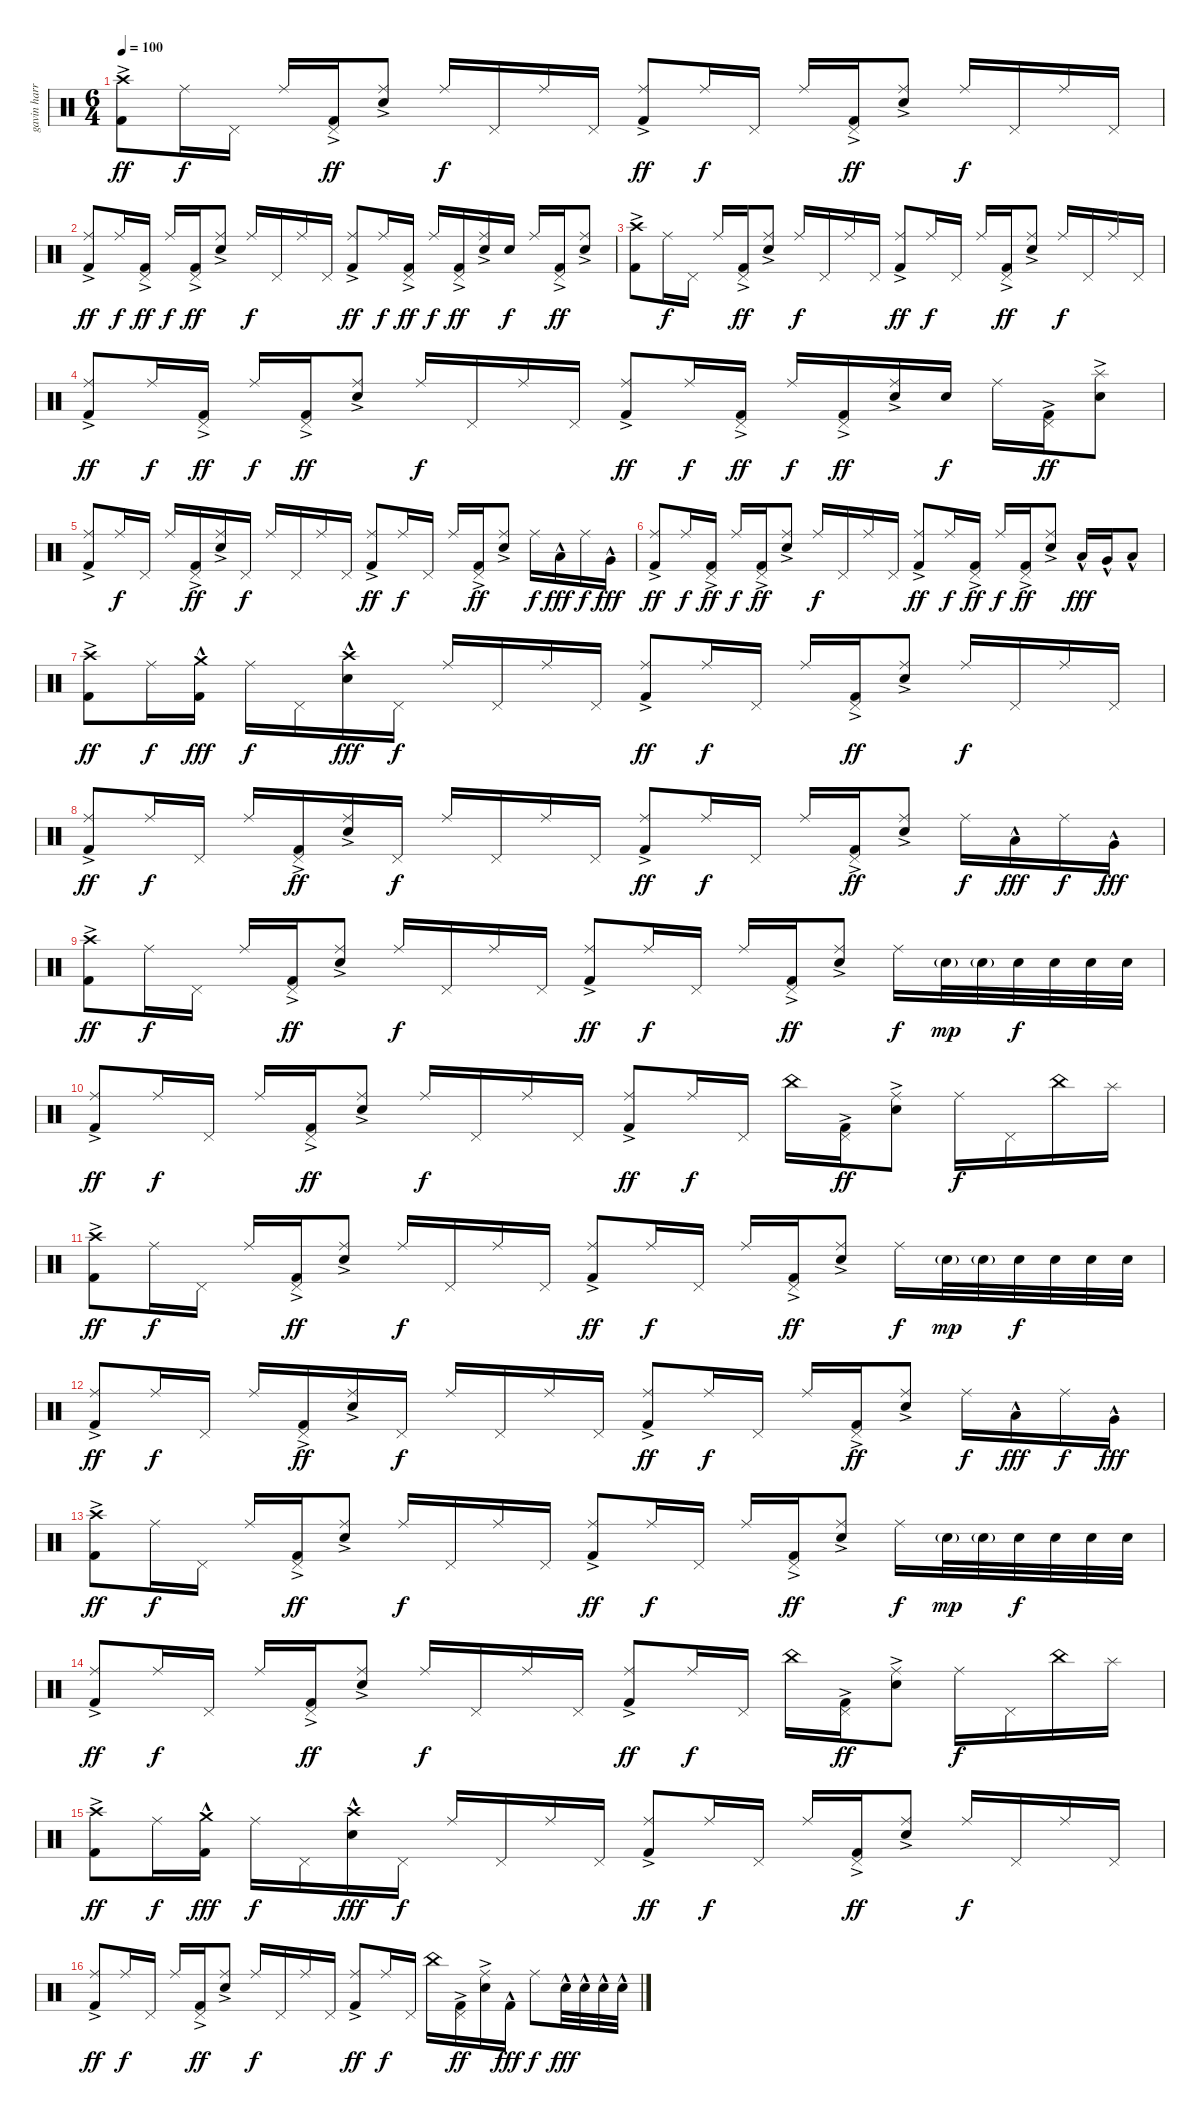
\track ("gavin harrison" "gavin harr") {instrument percussion}
\staff {score}
\articulation defaults
\ts (6 4)
\tempo 100
\clef neutral
\ks c
("Crash high (hit)" "Kick (hit) 2"{ac}).8{dy ff} "Ride (middle)".16{dy f} "Pedal Hi-Hat (hit)".16 "Ride (middle)".16 ("Pedal Hi-Hat (hit)" "Kick (hit) 2"{ac}).16{dy ff} ("Ride (middle)" "Electric Snare (hit)"{ac}).8 "Ride (middle)".16{dy f} "Pedal Hi-Hat (hit)".16 "Ride (middle)".16 "Pedal Hi-Hat (hit)".16 ("Ride (middle)" "Kick (hit) 2"{ac}).8{dy ff} "Ride (middle)".16{dy f} "Pedal Hi-Hat (hit)".16 "Ride (middle)".16 ("Pedal Hi-Hat (hit)" "Kick (hit) 2"{ac}).16{dy ff} ("Ride (middle)" "Electric Snare (hit)"{ac}).8 "Ride (middle)".16{dy f} "Pedal Hi-Hat (hit)".16 "Ride (middle)".16 "Pedal Hi-Hat (hit)".16 |
("Ride (middle)" "Kick (hit) 2"{ac}).8{dy ff} "Ride (middle)".16{dy f} ("Pedal Hi-Hat (hit)" "Kick (hit) 2"{ac}).16{dy ff} "Ride (middle)".16{dy f} ("Pedal Hi-Hat (hit)" "Kick (hit) 2"{ac}).16{dy ff} ("Ride (middle)" "Electric Snare (hit)"{ac}).8 "Ride (middle)".16{dy f} "Pedal Hi-Hat (hit)".16 "Ride (middle)".16 "Pedal Hi-Hat (hit)".16 ("Ride (middle)" "Kick (hit) 2"{ac}).8{dy ff} "Ride (middle)".16{dy f} ("Pedal Hi-Hat (hit)" "Kick (hit) 2"{ac}).16{dy ff} "Ride (middle)".16{dy f} ("Pedal Hi-Hat (hit)" "Kick (hit) 2"{ac}).16{dy ff} ("Ride (middle)" "Electric Snare (hit)"{ac}).16 "Electric Snare (hit)".16{dy f} "Ride (middle)".16 ("Pedal Hi-Hat (hit)" "Kick (hit) 2"{ac}).16{dy ff} ("Ride (middle)" "Electric Snare (hit)"{ac}).8 |
("Crash high (hit)" "Kick (hit) 2"{ac}).8 "Ride (middle)".16{dy f} "Pedal Hi-Hat (hit)".16 "Ride (middle)".16 ("Pedal Hi-Hat (hit)" "Kick (hit) 2"{ac}).16{dy ff} ("Ride (middle)" "Electric Snare (hit)"{ac}).8 "Ride (middle)".16{dy f} "Pedal Hi-Hat (hit)".16 "Ride (middle)".16 "Pedal Hi-Hat (hit)".16 ("Ride (middle)" "Kick (hit) 2"{ac}).8{dy ff} "Ride (middle)".16{dy f} "Pedal Hi-Hat (hit)".16 "Ride (middle)".16 ("Pedal Hi-Hat (hit)" "Kick (hit) 2"{ac}).16{dy ff} ("Ride (middle)" "Electric Snare (hit)"{ac}).8 "Ride (middle)".16{dy f} "Pedal Hi-Hat (hit)".16 "Ride (middle)".16 "Pedal Hi-Hat (hit)".16 |
("Ride (middle)" "Kick (hit) 2"{ac}).8{dy ff} "Ride (middle)".16{dy f} ("Pedal Hi-Hat (hit)" "Kick (hit) 2"{ac}).16{dy ff} "Ride (middle)".16{dy f} ("Pedal Hi-Hat (hit)" "Kick (hit) 2"{ac}).16{dy ff} ("Ride (middle)" "Electric Snare (hit)"{ac}).8 "Ride (middle)".16{dy f} "Pedal Hi-Hat (hit)".16 "Ride (middle)".16 "Pedal Hi-Hat (hit)".16 ("Ride (middle)" "Kick (hit) 2"{ac}).8{dy ff} "Ride (middle)".16{dy f} ("Pedal Hi-Hat (hit)" "Kick (hit) 2"{ac}).16{dy ff} "Ride (middle)".16{dy f} ("Pedal Hi-Hat (hit)" "Kick (hit) 2"{ac}).16{dy ff} ("Ride (middle)" "Electric Snare (hit)"{ac}).16 "Electric Snare (hit)".16{dy f} "Ride (middle)".16 ("Pedal Hi-Hat (hit)" "Kick (hit) 2"{ac}).16{dy ff} ("Splash (hit)" "Electric Snare (hit)"{ac}).8 |
("Ride (middle)" "Kick (hit) 2"{ac}).8 "Ride (middle)".16{dy f} "Pedal Hi-Hat (hit)".16 "Ride (middle)".16 ("Pedal Hi-Hat (hit)" "Kick (hit) 2"{ac}).16{dy ff} ("Ride (middle)" "Electric Snare (hit)"{ac}).16 "Pedal Hi-Hat (hit)".16{dy f} "Ride (middle)".16 "Pedal Hi-Hat (hit)".16 "Ride (middle)".16 "Pedal Hi-Hat (hit)".16 ("Ride (middle)" "Kick (hit) 2"{ac}).8{dy ff} "Ride (middle)".16{dy f} "Pedal Hi-Hat (hit)".16 "Ride (middle)".16 ("Pedal Hi-Hat (hit)" "Kick (hit) 2"{ac}).16{dy ff} ("Ride (middle)" "Electric Snare (hit)"{ac}).8 "Ride (middle)".16{dy f} "Low Tom (hit)"{hac}.16{dy fff} "Ride (middle)".16{dy f} "Very Low Tom (hit)"{hac}.16{dy fff} |
("Ride (middle)" "Kick (hit) 2"{ac}).8{dy ff} "Ride (middle)".16{dy f} ("Pedal Hi-Hat (hit)" "Kick (hit) 2"{ac}).16{dy ff} "Ride (middle)".16{dy f} ("Pedal Hi-Hat (hit)" "Kick (hit) 2"{ac}).16{dy ff} ("Ride (middle)" "Electric Snare (hit)"{ac}).8 "Ride (middle)".16{dy f} "Pedal Hi-Hat (hit)".16 "Ride (middle)".16 "Pedal Hi-Hat (hit)".16 ("Ride (middle)" "Kick (hit) 2"{ac}).8{dy ff} "Ride (middle)".16{dy f} ("Pedal Hi-Hat (hit)" "Kick (hit) 2"{ac}).16{dy ff} "Ride (middle)".16{dy f} ("Pedal Hi-Hat (hit)" "Kick (hit) 2"{ac}).16{dy ff} ("Ride (middle)" "Electric Snare (hit)"{ac}).8 "Low Tom (hit)"{hac}.16{dy fff} "Very Low Tom (hit)"{hac}.16 "Low Floor Tom (hit)"{hac}.8 |
("Crash high (hit)" "Kick (hit) 2"{ac}).8{dy ff} "Ride (middle)".16{dy f} ("Crash medium (hit)" "Kick (hit) 2"{hac}).16{dy fff} "Ride (middle)".16{dy f} "Pedal Hi-Hat (hit)".16 ("Crash high (hit)" "Electric Snare (hit)"{hac}).16{dy fff} "Pedal Hi-Hat (hit)".16{dy f} "Ride (middle)".16 "Pedal Hi-Hat (hit)".16 "Ride (middle)".16 "Pedal Hi-Hat (hit)".16 ("Ride (middle)" "Kick (hit) 2"{ac}).8{dy ff} "Ride (middle)".16{dy f} "Pedal Hi-Hat (hit)".16 "Ride (middle)".16 ("Pedal Hi-Hat (hit)" "Kick (hit) 2"{ac}).16{dy ff} ("Ride (middle)" "Electric Snare (hit)"{ac}).8 "Ride (middle)".16{dy f} "Pedal Hi-Hat (hit)".16 "Ride (middle)".16 "Pedal Hi-Hat (hit)".16 |
("Ride (middle)" "Kick (hit) 2"{ac}).8{dy ff} "Ride (middle)".16{dy f} "Pedal Hi-Hat (hit)".16 "Ride (middle)".16 ("Pedal Hi-Hat (hit)" "Kick (hit) 2"{ac}).16{dy ff} ("Ride (middle)" "Electric Snare (hit)"{ac}).16 "Pedal Hi-Hat (hit)".16{dy f} "Ride (middle)".16 "Pedal Hi-Hat (hit)".16 "Ride (middle)".16 "Pedal Hi-Hat (hit)".16 ("Ride (middle)" "Kick (hit) 2"{ac}).8{dy ff} "Ride (middle)".16{dy f} "Pedal Hi-Hat (hit)".16 "Ride (middle)".16 ("Pedal Hi-Hat (hit)" "Kick (hit) 2"{ac}).16{dy ff} ("Ride (middle)" "Electric Snare (hit)"{ac}).8 "Ride (middle)".16{dy f} "Low Tom (hit)"{hac}.16{dy fff} "Ride (middle)".16{dy f} "Very Low Tom (hit)"{hac}.16{dy fff} |
("Crash high (hit)" "Kick (hit) 2"{ac}).8{dy ff} "Ride (middle)".16{dy f} "Pedal Hi-Hat (hit)".16 "Ride (middle)".16 ("Pedal Hi-Hat (hit)" "Kick (hit) 2"{ac}).16{dy ff} ("Ride (middle)" "Electric Snare (hit)"{ac}).8 "Ride (middle)".16{dy f} "Pedal Hi-Hat (hit)".16 "Ride (middle)".16 "Pedal Hi-Hat (hit)".16 ("Ride (middle)" "Kick (hit) 2"{ac}).8{dy ff} "Ride (middle)".16{dy f} "Pedal Hi-Hat (hit)".16 "Ride (middle)".16 ("Pedal Hi-Hat (hit)" "Kick (hit) 2"{ac}).16{dy ff} ("Ride (middle)" "Electric Snare (hit)"{ac}).8 "Ride (middle)".16{dy f} "Electric Snare (hit)"{g}.32{dy mp} "Electric Snare (hit)"{g}.32 "Electric Snare (hit)".32{dy f} "Electric Snare (hit)".32 "Electric Snare (hit)".32 "Electric Snare (hit)".32 |
("Ride (middle)" "Kick (hit) 2"{ac}).8{dy ff} "Ride (middle)".16{dy f} "Pedal Hi-Hat (hit)".16 "Ride (middle)".16 ("Pedal Hi-Hat (hit)" "Kick (hit) 2"{ac}).16{dy ff} ("Ride (middle)" "Electric Snare (hit)"{ac}).8 "Ride (middle)".16{dy f} "Pedal Hi-Hat (hit)".16 "Ride (middle)".16 "Pedal Hi-Hat (hit)".16 ("Ride (middle)" "Kick (hit) 2"{ac}).8{dy ff} "Ride (middle)".16{dy f} "Pedal Hi-Hat (hit)".16 "China (hit)".16 ("Pedal Hi-Hat (hit)" "Kick (hit) 2"{ac}).16{dy ff} ("Ride (middle)" "Electric Snare (hit)"{ac}).8 "Ride (middle)".16{dy f} "Pedal Hi-Hat (hit)".16 "China (hit)".16 "Splash (hit)".16 |
("Crash high (hit)" "Kick (hit) 2"{ac}).8{dy ff} "Ride (middle)".16{dy f} "Pedal Hi-Hat (hit)".16 "Ride (middle)".16 ("Pedal Hi-Hat (hit)" "Kick (hit) 2"{ac}).16{dy ff} ("Ride (middle)" "Electric Snare (hit)"{ac}).8 "Ride (middle)".16{dy f} "Pedal Hi-Hat (hit)".16 "Ride (middle)".16 "Pedal Hi-Hat (hit)".16 ("Ride (middle)" "Kick (hit) 2"{ac}).8{dy ff} "Ride (middle)".16{dy f} "Pedal Hi-Hat (hit)".16 "Ride (middle)".16 ("Pedal Hi-Hat (hit)" "Kick (hit) 2"{ac}).16{dy ff} ("Ride (middle)" "Electric Snare (hit)"{ac}).8 "Ride (middle)".16{dy f} "Electric Snare (hit)"{g}.32{dy mp} "Electric Snare (hit)"{g}.32 "Electric Snare (hit)".32{dy f} "Electric Snare (hit)".32 "Electric Snare (hit)".32 "Electric Snare (hit)".32 |
("Ride (middle)" "Kick (hit) 2"{ac}).8{dy ff} "Ride (middle)".16{dy f} "Pedal Hi-Hat (hit)".16 "Ride (middle)".16 ("Pedal Hi-Hat (hit)" "Kick (hit) 2"{ac}).16{dy ff} ("Ride (middle)" "Electric Snare (hit)"{ac}).16 "Pedal Hi-Hat (hit)".16{dy f} "Ride (middle)".16 "Pedal Hi-Hat (hit)".16 "Ride (middle)".16 "Pedal Hi-Hat (hit)".16 ("Ride (middle)" "Kick (hit) 2"{ac}).8{dy ff} "Ride (middle)".16{dy f} "Pedal Hi-Hat (hit)".16 "Ride (middle)".16 ("Pedal Hi-Hat (hit)" "Kick (hit) 2"{ac}).16{dy ff} ("Ride (middle)" "Electric Snare (hit)"{ac}).8 "Ride (middle)".16{dy f} "Low Tom (hit)"{hac}.16{dy fff} "Ride (middle)".16{dy f} "Very Low Tom (hit)"{hac}.16{dy fff} |
("Crash high (hit)" "Kick (hit) 2"{ac}).8{dy ff} "Ride (middle)".16{dy f} "Pedal Hi-Hat (hit)".16 "Ride (middle)".16 ("Pedal Hi-Hat (hit)" "Kick (hit) 2"{ac}).16{dy ff} ("Ride (middle)" "Electric Snare (hit)"{ac}).8 "Ride (middle)".16{dy f} "Pedal Hi-Hat (hit)".16 "Ride (middle)".16 "Pedal Hi-Hat (hit)".16 ("Ride (middle)" "Kick (hit) 2"{ac}).8{dy ff} "Ride (middle)".16{dy f} "Pedal Hi-Hat (hit)".16 "Ride (middle)".16 ("Pedal Hi-Hat (hit)" "Kick (hit) 2"{ac}).16{dy ff} ("Ride (middle)" "Electric Snare (hit)"{ac}).8 "Ride (middle)".16{dy f} "Electric Snare (hit)"{g}.32{dy mp} "Electric Snare (hit)"{g}.32 "Electric Snare (hit)".32{dy f} "Electric Snare (hit)".32 "Electric Snare (hit)".32 "Electric Snare (hit)".32 |
("Ride (middle)" "Kick (hit) 2"{ac}).8{dy ff} "Ride (middle)".16{dy f} "Pedal Hi-Hat (hit)".16 "Ride (middle)".16 ("Pedal Hi-Hat (hit)" "Kick (hit) 2"{ac}).16{dy ff} ("Ride (middle)" "Electric Snare (hit)"{ac}).8 "Ride (middle)".16{dy f} "Pedal Hi-Hat (hit)".16 "Ride (middle)".16 "Pedal Hi-Hat (hit)".16 ("Ride (middle)" "Kick (hit) 2"{ac}).8{dy ff} "Ride (middle)".16{dy f} "Pedal Hi-Hat (hit)".16 "China (hit)".16 ("Pedal Hi-Hat (hit)" "Kick (hit) 2"{ac}).16{dy ff} ("Ride (middle)" "Electric Snare (hit)"{ac}).8 "Ride (middle)".16{dy f} "Pedal Hi-Hat (hit)".16 "China (hit)".16 "Splash (hit)".16 |
("Crash high (hit)" "Kick (hit) 2"{ac}).8{dy ff} "Ride (middle)".16{dy f} ("Crash medium (hit)" "Kick (hit) 2"{hac}).16{dy fff} "Ride (middle)".16{dy f} "Pedal Hi-Hat (hit)".16 ("Crash high (hit)" "Electric Snare (hit)"{hac}).16{dy fff} "Pedal Hi-Hat (hit)".16{dy f} "Ride (middle)".16 "Pedal Hi-Hat (hit)".16 "Ride (middle)".16 "Pedal Hi-Hat (hit)".16 ("Ride (middle)" "Kick (hit) 2"{ac}).8{dy ff} "Ride (middle)".16{dy f} "Pedal Hi-Hat (hit)".16 "Ride (middle)".16 ("Pedal Hi-Hat (hit)" "Kick (hit) 2"{ac}).16{dy ff} ("Ride (middle)" "Electric Snare (hit)"{ac}).8 "Ride (middle)".16{dy f} "Pedal Hi-Hat (hit)".16 "Ride (middle)".16 "Pedal Hi-Hat (hit)".16 |
("Ride (middle)" "Kick (hit) 2"{ac}).8{dy ff} "Ride (middle)".16{dy f} "Pedal Hi-Hat (hit)".16 "Ride (middle)".16 ("Pedal Hi-Hat (hit)" "Kick (hit) 2"{ac}).16{dy ff} ("Ride (middle)" "Electric Snare (hit)"{ac}).8 "Ride (middle)".16{dy f} "Pedal Hi-Hat (hit)".16 "Ride (middle)".16 "Pedal Hi-Hat (hit)".16 ("Ride (middle)" "Kick (hit) 2"{ac}).8{dy ff} "Ride (middle)".16{dy f} "Pedal Hi-Hat (hit)".16 "China (hit)".16 ("Pedal Hi-Hat (hit)" "Kick (hit) 2"{ac}).16{dy ff} ("Ride (middle)" "Electric Snare (hit)"{ac}).16 "Kick (hit) 2"{hac}.16{dy fff} "Ride (middle)".8{dy f} "Electric Snare (hit)"{hac}.32{dy fff} "Electric Snare (hit)"{hac}.32 "Electric Snare (hit)"{hac}.32 "Electric Snare (hit)"{hac}.32
